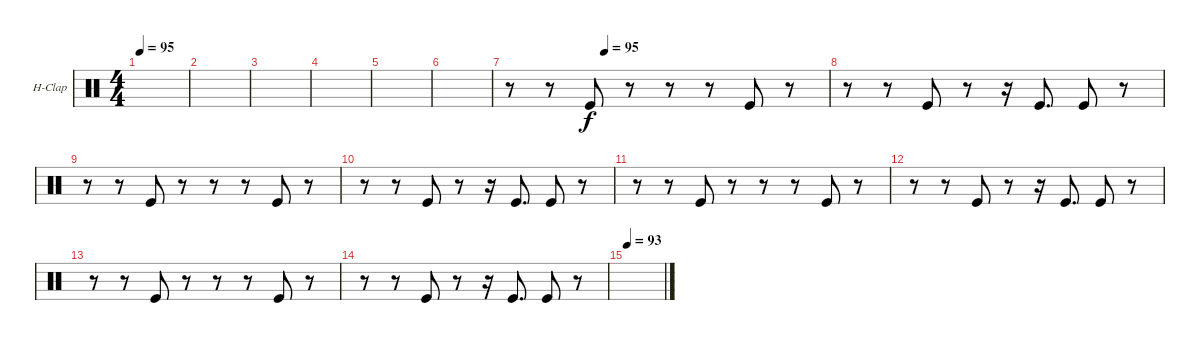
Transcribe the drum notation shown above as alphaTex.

\defaultSystemsLayout 4
\bracketExtendMode groupsimilarinstruments
\firstSystemTrackNameOrientation horizontal
\otherSystemsTrackNameOrientation horizontal
\track ("Hand Clap" "H-Clap") {instrument percussion}
\staff {score}
\articulation defaults
\ts (4 4)
\tempo 95
\clef neutral
\ks c
|
|
|
|
|
|
\tempo (95 0.3)
r.8 r.8 "Kick (hit)".8 r.8 r.8 r.8 "Kick (hit)".8 r.8 |
r.8 r.8 "Kick (hit)".8 r.8 r.16 "Kick (hit)".8{d} "Kick (hit)".8 r.8 |
r.8 r.8 "Kick (hit)".8 r.8 r.8 r.8 "Kick (hit)".8 r.8 |
r.8 r.8 "Kick (hit)".8 r.8 r.16 "Kick (hit)".8{d} "Kick (hit)".8 r.8 |
r.8 r.8 "Kick (hit)".8 r.8 r.8 r.8 "Kick (hit)".8 r.8 |
r.8 r.8 "Kick (hit)".8 r.8 r.16 "Kick (hit)".8{d} "Kick (hit)".8 r.8 |
r.8 r.8 "Kick (hit)".8 r.8 r.8 r.8 "Kick (hit)".8 r.8 |
r.8 r.8 "Kick (hit)".8 r.8 r.16 "Kick (hit)".8{d} "Kick (hit)".8 r.8 |
\tempo (93 0.00625)
